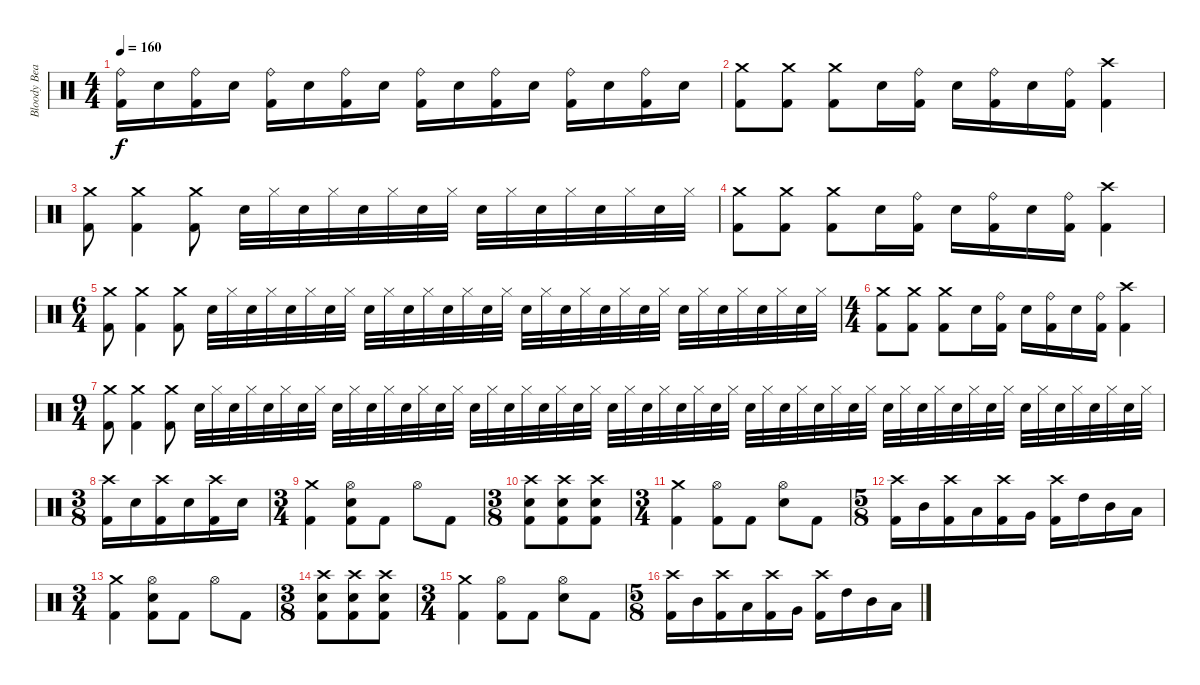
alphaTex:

\track ("Bloody Beater" "Bloody Bea") {instrument percussion}
\staff {score}
\articulation defaults
\ts (4 4)
\tempo 160
\clef neutral
\ks c
("Ride (bell)" "Kick (hit) 2").16{dy f} "Snare (hit) 2".16 ("Ride (bell)" "Kick (hit) 2").16 "Snare (hit) 2".16 ("Ride (bell)" "Kick (hit) 2").16 "Snare (hit) 2".16 ("Ride (bell)" "Kick (hit) 2").16 "Snare (hit) 2".16 ("Ride (bell)" "Kick (hit) 2").16 "Snare (hit) 2".16 ("Ride (bell)" "Kick (hit) 2").16 "Snare (hit) 2".16 ("Ride (bell)" "Kick (hit) 2").16 "Snare (hit) 2".16 ("Ride (bell)" "Kick (hit) 2").16 "Snare (hit) 2".16 |
("Crash medium (hit)" "Kick (hit) 2").8 ("Crash medium (hit)" "Kick (hit) 2").8 ("Crash medium (hit)" "Kick (hit) 2").8 "Snare (hit) 2".16 ("Ride (bell)" "Kick (hit) 2").16 "Snare (hit) 2".16 ("Ride (bell)" "Kick (hit) 2").16 "Snare (hit) 2".16 ("Ride (bell)" "Kick (hit) 2").16 ("Crash high (hit)" "Kick (hit) 2").4 |
("Crash medium (hit)" "Kick (hit) 2").8 ("Crash medium (hit)" "Kick (hit) 2").4 ("Crash medium (hit)" "Kick (hit) 2").8 "Snare (hit) 2".32 "Hi-Hat (closed)".32 "Snare (hit) 2".32 "Hi-Hat (closed)".32 "Snare (hit) 2".32 "Hi-Hat (closed)".32 "Snare (hit) 2".32 "Hi-Hat (closed)".32 "Snare (hit) 2".32 "Hi-Hat (closed)".32 "Snare (hit) 2".32 "Hi-Hat (closed)".32 "Snare (hit) 2".32 "Hi-Hat (closed)".32 "Snare (hit) 2".32 "Hi-Hat (closed)".32 |
("Crash medium (hit)" "Kick (hit) 2").8 ("Crash medium (hit)" "Kick (hit) 2").8 ("Crash medium (hit)" "Kick (hit) 2").8 "Snare (hit) 2".16 ("Ride (bell)" "Kick (hit) 2").16 "Snare (hit) 2".16 ("Ride (bell)" "Kick (hit) 2").16 "Snare (hit) 2".16 ("Ride (bell)" "Kick (hit) 2").16 ("Crash high (hit)" "Kick (hit) 2").4 |
\ts (6 4)
("Crash medium (hit)" "Kick (hit) 2").8 ("Crash medium (hit)" "Kick (hit) 2").4 ("Crash medium (hit)" "Kick (hit) 2").8 "Snare (hit) 2".32 "Hi-Hat (closed)".32 "Snare (hit) 2".32 "Hi-Hat (closed)".32 "Snare (hit) 2".32 "Hi-Hat (closed)".32 "Snare (hit) 2".32 "Hi-Hat (closed)".32 "Snare (hit) 2".32 "Hi-Hat (closed)".32 "Snare (hit) 2".32 "Hi-Hat (closed)".32 "Snare (hit) 2".32 "Hi-Hat (closed)".32 "Snare (hit) 2".32 "Hi-Hat (closed)".32 "Snare (hit) 2".32 "Hi-Hat (closed)".32 "Snare (hit) 2".32 "Hi-Hat (closed)".32 "Snare (hit) 2".32 "Hi-Hat (closed)".32 "Snare (hit) 2".32 "Hi-Hat (closed)".32 "Snare (hit) 2".32 "Hi-Hat (closed)".32 "Snare (hit) 2".32 "Hi-Hat (closed)".32 "Snare (hit) 2".32 "Hi-Hat (closed)".32 "Snare (hit) 2".32 "Hi-Hat (closed)".32 |
\ts (4 4)
("Crash medium (hit)" "Kick (hit) 2").8 ("Crash medium (hit)" "Kick (hit) 2").8 ("Crash medium (hit)" "Kick (hit) 2").8 "Snare (hit) 2".16 ("Ride (bell)" "Kick (hit) 2").16 "Snare (hit) 2".16 ("Ride (bell)" "Kick (hit) 2").16 "Snare (hit) 2".16 ("Ride (bell)" "Kick (hit) 2").16 ("Crash high (hit)" "Kick (hit) 2").4 |
\ts (9 4)
("Crash medium (hit)" "Kick (hit) 2").8 ("Crash medium (hit)" "Kick (hit) 2").4 ("Crash medium (hit)" "Kick (hit) 2").8 "Snare (hit) 2".32 "Hi-Hat (closed)".32 "Snare (hit) 2".32 "Hi-Hat (closed)".32 "Snare (hit) 2".32 "Hi-Hat (closed)".32 "Snare (hit) 2".32 "Hi-Hat (closed)".32 "Snare (hit) 2".32 "Hi-Hat (closed)".32 "Snare (hit) 2".32 "Hi-Hat (closed)".32 "Snare (hit) 2".32 "Hi-Hat (closed)".32 "Snare (hit) 2".32 "Hi-Hat (closed)".32 "Snare (hit) 2".32 "Hi-Hat (closed)".32 "Snare (hit) 2".32 "Hi-Hat (closed)".32 "Snare (hit) 2".32 "Hi-Hat (closed)".32 "Snare (hit) 2".32 "Hi-Hat (closed)".32 "Snare (hit) 2".32 "Hi-Hat (closed)".32 "Snare (hit) 2".32 "Hi-Hat (closed)".32 "Snare (hit) 2".32 "Hi-Hat (closed)".32 "Snare (hit) 2".32 "Hi-Hat (closed)".32 "Snare (hit) 2".32 "Hi-Hat (closed)".32 "Snare (hit) 2".32 "Hi-Hat (closed)".32 "Snare (hit) 2".32 "Hi-Hat (closed)".32 "Snare (hit) 2".32 "Hi-Hat (closed)".32 "Snare (hit) 2".32 "Hi-Hat (closed)".32 "Snare (hit) 2".32 "Hi-Hat (closed)".32 "Snare (hit) 2".32 "Hi-Hat (closed)".32 "Snare (hit) 2".32 "Hi-Hat (closed)".32 "Snare (hit) 2".32 "Hi-Hat (closed)".32 "Snare (hit) 2".32 "Hi-Hat (closed)".32 "Snare (hit) 2".32 "Hi-Hat (closed)".32 "Snare (hit) 2".32 "Hi-Hat (closed)".32 |
\ts (3 8)
("Crash high (hit)" "Kick (hit) 2").16 "Snare (hit) 2".16 ("Crash high (hit)" "Kick (hit) 2").16 "Snare (hit) 2".16 ("Crash high (hit)" "Kick (hit) 2").16 "Snare (hit) 2".16 |
\ts (3 4)
("Crash medium (hit)" "Kick (hit) 2").4 ("Hi-Hat (open)" "Snare (hit) 2" "Kick (hit) 2").8 "Kick (hit) 2".8 "Hi-Hat (open)".8 "Kick (hit) 2".8 |
\ts (3 8)
("Crash high (hit)" "Snare (hit) 2" "Kick (hit) 2").8 ("Crash high (hit)" "Snare (hit) 2" "Kick (hit) 2").8 ("Crash high (hit)" "Snare (hit) 2" "Kick (hit) 2").8 |
\ts (3 4)
("Crash medium (hit)" "Kick (hit) 2").4 ("Hi-Hat (open)" "Kick (hit) 2").8 "Kick (hit) 2".8 ("Hi-Hat (open)" "Snare (hit) 2").8 "Kick (hit) 2".8 |
\ts (5 8)
("Crash high (hit)" "Kick (hit) 2").16 "Mid Tom (hit)".16 ("Crash high (hit)" "Kick (hit) 2").16 "Low Tom (hit)".16 ("Crash high (hit)" "Kick (hit) 2").16 "Very Low Tom (hit)".16 ("Crash high (hit)" "Kick (hit) 2").16 "High Tom (hit)".16 "Mid Tom (hit)".16 "Low Tom (hit)".16 |
\ts (3 4)
("Crash medium (hit)" "Kick (hit) 2").4 ("Hi-Hat (open)" "Snare (hit) 2" "Kick (hit) 2").8 "Kick (hit) 2".8 "Hi-Hat (open)".8 "Kick (hit) 2".8 |
\ts (3 8)
("Crash high (hit)" "Snare (hit) 2" "Kick (hit) 2").8 ("Crash high (hit)" "Snare (hit) 2" "Kick (hit) 2").8 ("Crash high (hit)" "Snare (hit) 2" "Kick (hit) 2").8 |
\ts (3 4)
("Crash medium (hit)" "Kick (hit) 2").4 ("Hi-Hat (open)" "Kick (hit) 2").8 "Kick (hit) 2".8 ("Hi-Hat (open)" "Snare (hit) 2").8 "Kick (hit) 2".8 |
\ts (5 8)
("Crash high (hit)" "Kick (hit) 2").16 "Mid Tom (hit)".16 ("Crash high (hit)" "Kick (hit) 2").16 "Low Tom (hit)".16 ("Crash high (hit)" "Kick (hit) 2").16 "Very Low Tom (hit)".16 ("Crash high (hit)" "Kick (hit) 2").16 "High Tom (hit)".16 "Mid Tom (hit)".16 "Low Tom (hit)".16
